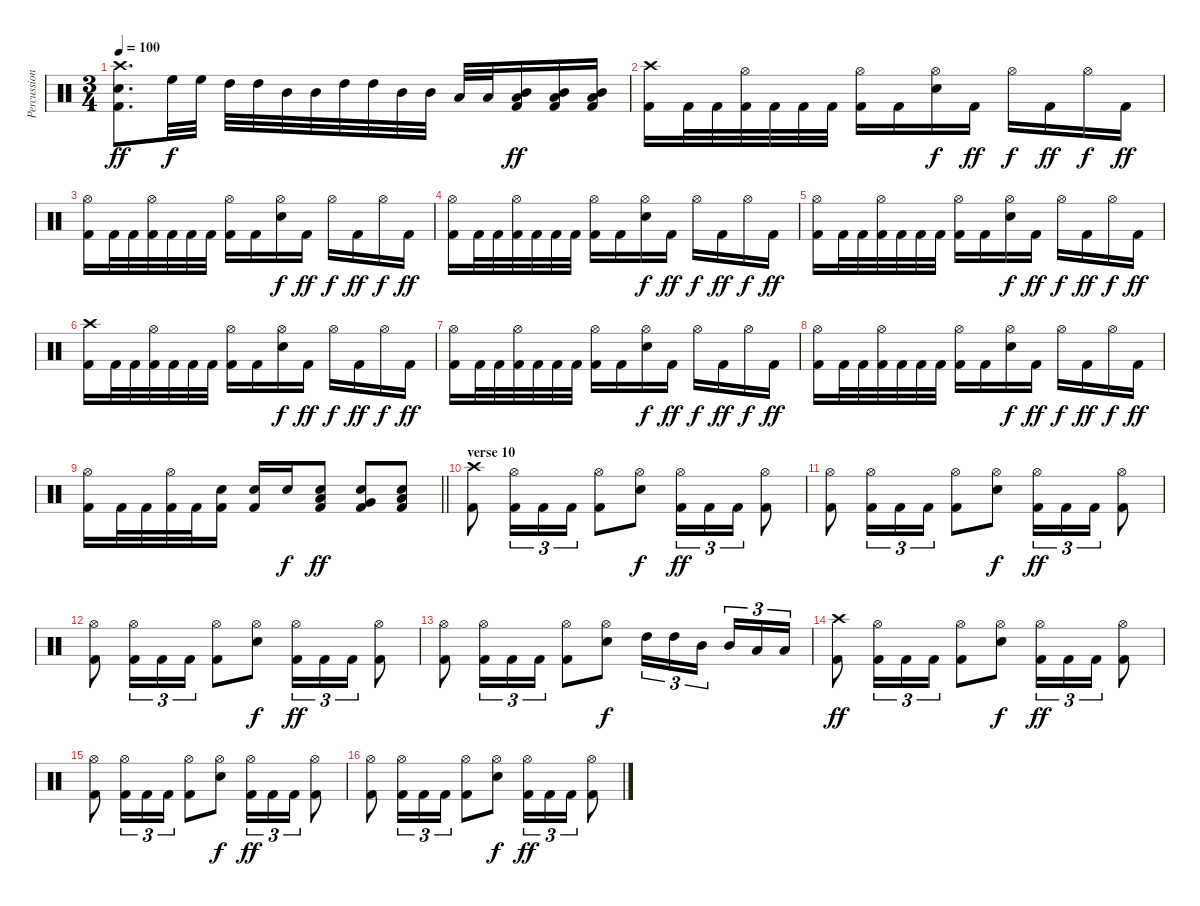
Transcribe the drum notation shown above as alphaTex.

\track ("Percussion" "Percussion") {instrument percussion}
\staff {score}
\articulation defaults
\ts (3 4)
\tempo 100
\clef neutral
\ks c
("Crash high (hit)" "Snare (hit) 2" "Kick (hit) 2").8{d dy ff} "High Floor Tom (hit)".32{dy f} "High Floor Tom (hit)".32 "High Tom (hit)".32 "High Tom (hit)".32 "Mid Tom (hit)".32 "Mid Tom (hit)".32 "High Tom (hit)".32 "High Tom (hit)".32 "Mid Tom (hit)".32 "Mid Tom (hit)".32 "Low Tom (hit)".32 "Low Tom (hit)".32 ("Low Tom (hit)" "Mid Tom (hit)" "Kick (hit) 2").16{dy ff} ("Low Tom (hit)" "Mid Tom (hit)" "Kick (hit) 2").16 ("Low Tom (hit)" "Mid Tom (hit)" "Kick (hit) 2").16 |
("Crash high (hit)" "Kick (hit) 2").16 "Kick (hit) 2".32 "Kick (hit) 2".32 ("Hi-Hat (open)" "Kick (hit) 2").32 "Kick (hit) 2".32 "Kick (hit) 2".32 "Kick (hit) 2".32 ("Hi-Hat (open)" "Kick (hit) 2").16 "Kick (hit) 2".16 ("Hi-Hat (open)" "Snare (hit) 2").16{dy f} "Kick (hit) 2".16{dy ff} "Hi-Hat (open)".16{dy f} "Kick (hit) 2".16{dy ff} "Hi-Hat (open)".16{dy f} "Kick (hit) 2".16{dy ff} |
("Hi-Hat (open)" "Kick (hit) 2").16 "Kick (hit) 2".32 "Kick (hit) 2".32 ("Hi-Hat (open)" "Kick (hit) 2").32 "Kick (hit) 2".32 "Kick (hit) 2".32 "Kick (hit) 2".32 ("Hi-Hat (open)" "Kick (hit) 2").16 "Kick (hit) 2".16 ("Hi-Hat (open)" "Snare (hit) 2").16{dy f} "Kick (hit) 2".16{dy ff} "Hi-Hat (open)".16{dy f} "Kick (hit) 2".16{dy ff} "Hi-Hat (open)".16{dy f} "Kick (hit) 2".16{dy ff} |
("Hi-Hat (open)" "Kick (hit) 2").16 "Kick (hit) 2".32 "Kick (hit) 2".32 ("Hi-Hat (open)" "Kick (hit) 2").32 "Kick (hit) 2".32 "Kick (hit) 2".32 "Kick (hit) 2".32 ("Hi-Hat (open)" "Kick (hit) 2").16 "Kick (hit) 2".16 ("Hi-Hat (open)" "Snare (hit) 2").16{dy f} "Kick (hit) 2".16{dy ff} "Hi-Hat (open)".16{dy f} "Kick (hit) 2".16{dy ff} "Hi-Hat (open)".16{dy f} "Kick (hit) 2".16{dy ff} |
("Hi-Hat (open)" "Kick (hit) 2").16 "Kick (hit) 2".32 "Kick (hit) 2".32 ("Hi-Hat (open)" "Kick (hit) 2").32 "Kick (hit) 2".32 "Kick (hit) 2".32 "Kick (hit) 2".32 ("Hi-Hat (open)" "Kick (hit) 2").16 "Kick (hit) 2".16 ("Hi-Hat (open)" "Snare (hit) 2").16{dy f} "Kick (hit) 2".16{dy ff} "Hi-Hat (open)".16{dy f} "Kick (hit) 2".16{dy ff} "Hi-Hat (open)".16{dy f} "Kick (hit) 2".16{dy ff} |
("Crash high (hit)" "Kick (hit) 2").16 "Kick (hit) 2".32 "Kick (hit) 2".32 ("Hi-Hat (open)" "Kick (hit) 2").32 "Kick (hit) 2".32 "Kick (hit) 2".32 "Kick (hit) 2".32 ("Hi-Hat (open)" "Kick (hit) 2").16 "Kick (hit) 2".16 ("Hi-Hat (open)" "Snare (hit) 2").16{dy f} "Kick (hit) 2".16{dy ff} "Hi-Hat (open)".16{dy f} "Kick (hit) 2".16{dy ff} "Hi-Hat (open)".16{dy f} "Kick (hit) 2".16{dy ff} |
("Hi-Hat (open)" "Kick (hit) 2").16 "Kick (hit) 2".32 "Kick (hit) 2".32 ("Hi-Hat (open)" "Kick (hit) 2").32 "Kick (hit) 2".32 "Kick (hit) 2".32 "Kick (hit) 2".32 ("Hi-Hat (open)" "Kick (hit) 2").16 "Kick (hit) 2".16 ("Hi-Hat (open)" "Snare (hit) 2").16{dy f} "Kick (hit) 2".16{dy ff} "Hi-Hat (open)".16{dy f} "Kick (hit) 2".16{dy ff} "Hi-Hat (open)".16{dy f} "Kick (hit) 2".16{dy ff} |
("Hi-Hat (open)" "Kick (hit) 2").16 "Kick (hit) 2".32 "Kick (hit) 2".32 ("Hi-Hat (open)" "Kick (hit) 2").32 "Kick (hit) 2".32 "Kick (hit) 2".32 "Kick (hit) 2".32 ("Hi-Hat (open)" "Kick (hit) 2").16 "Kick (hit) 2".16 ("Hi-Hat (open)" "Snare (hit) 2").16{dy f} "Kick (hit) 2".16{dy ff} "Hi-Hat (open)".16{dy f} "Kick (hit) 2".16{dy ff} "Hi-Hat (open)".16{dy f} "Kick (hit) 2".16{dy ff} |
\barLineRight lightlight
("Hi-Hat (open)" "Kick (hit) 2").16 "Kick (hit) 2".32 "Kick (hit) 2".32 ("Hi-Hat (open)" "Kick (hit) 2").32 "Kick (hit) 2".32 ("Snare (hit) 2" "Kick (hit) 2").16 ("Snare (hit) 2" "Kick (hit) 2").16 "Snare (hit) 2".16{dy f} ("Low Tom (hit)" "Snare (hit) 2" "Kick (hit) 2").8{dy ff} ("Very Low Tom (hit)" "Snare (hit) 2" "Kick (hit) 2").8 ("Low Floor Tom (hit)" "Snare (hit) 2" "Kick (hit) 2").8 |
\section ("" "verse 10")
("Crash high (hit)" "Kick (hit) 2").8 ("Hi-Hat (open)" "Kick (hit) 2").16{tu (3 2)} "Kick (hit) 2".16{tu (3 2)} "Kick (hit) 2".16{tu (3 2)} ("Hi-Hat (open)" "Kick (hit) 2").8 ("Hi-Hat (open)" "Snare (hit) 2").8{dy f} ("Hi-Hat (open)" "Kick (hit) 2").16{tu (3 2) dy ff} "Kick (hit) 2".16{tu (3 2)} "Kick (hit) 2".16{tu (3 2)} ("Hi-Hat (open)" "Kick (hit) 2").8 |
("Hi-Hat (open)" "Kick (hit) 2").8 ("Hi-Hat (open)" "Kick (hit) 2").16{tu (3 2)} "Kick (hit) 2".16{tu (3 2)} "Kick (hit) 2".16{tu (3 2)} ("Hi-Hat (open)" "Kick (hit) 2").8 ("Hi-Hat (open)" "Snare (hit) 2").8{dy f} ("Hi-Hat (open)" "Kick (hit) 2").16{tu (3 2) dy ff} "Kick (hit) 2".16{tu (3 2)} "Kick (hit) 2".16{tu (3 2)} ("Hi-Hat (open)" "Kick (hit) 2").8 |
("Hi-Hat (open)" "Kick (hit) 2").8 ("Hi-Hat (open)" "Kick (hit) 2").16{tu (3 2)} "Kick (hit) 2".16{tu (3 2)} "Kick (hit) 2".16{tu (3 2)} ("Hi-Hat (open)" "Kick (hit) 2").8 ("Hi-Hat (open)" "Snare (hit) 2").8{dy f} ("Hi-Hat (open)" "Kick (hit) 2").16{tu (3 2) dy ff} "Kick (hit) 2".16{tu (3 2)} "Kick (hit) 2".16{tu (3 2)} ("Hi-Hat (open)" "Kick (hit) 2").8 |
("Hi-Hat (open)" "Kick (hit) 2").8 ("Hi-Hat (open)" "Kick (hit) 2").16{tu (3 2)} "Kick (hit) 2".16{tu (3 2)} "Kick (hit) 2".16{tu (3 2)} ("Hi-Hat (open)" "Kick (hit) 2").8 ("Hi-Hat (open)" "Snare (hit) 2").8{dy f} "High Tom (hit)".16{tu (3 2)} "High Tom (hit)".16{tu (3 2)} "Mid Tom (hit)".16{tu (3 2) beam splitsecondary} "Mid Tom (hit)".16{tu (3 2)} "Low Tom (hit)".16{tu (3 2)} "Low Tom (hit)".16{tu (3 2)} |
("Crash high (hit)" "Kick (hit) 2").8{dy ff} ("Hi-Hat (open)" "Kick (hit) 2").16{tu (3 2)} "Kick (hit) 2".16{tu (3 2)} "Kick (hit) 2".16{tu (3 2)} ("Hi-Hat (open)" "Kick (hit) 2").8 ("Hi-Hat (open)" "Snare (hit) 2").8{dy f} ("Hi-Hat (open)" "Kick (hit) 2").16{tu (3 2) dy ff} "Kick (hit) 2".16{tu (3 2)} "Kick (hit) 2".16{tu (3 2)} ("Hi-Hat (open)" "Kick (hit) 2").8 |
("Hi-Hat (open)" "Kick (hit) 2").8 ("Hi-Hat (open)" "Kick (hit) 2").16{tu (3 2)} "Kick (hit) 2".16{tu (3 2)} "Kick (hit) 2".16{tu (3 2)} ("Hi-Hat (open)" "Kick (hit) 2").8 ("Hi-Hat (open)" "Snare (hit) 2").8{dy f} ("Hi-Hat (open)" "Kick (hit) 2").16{tu (3 2) dy ff} "Kick (hit) 2".16{tu (3 2)} "Kick (hit) 2".16{tu (3 2)} ("Hi-Hat (open)" "Kick (hit) 2").8 |
("Hi-Hat (open)" "Kick (hit) 2").8 ("Hi-Hat (open)" "Kick (hit) 2").16{tu (3 2)} "Kick (hit) 2".16{tu (3 2)} "Kick (hit) 2".16{tu (3 2)} ("Hi-Hat (open)" "Kick (hit) 2").8 ("Hi-Hat (open)" "Snare (hit) 2").8{dy f} ("Hi-Hat (open)" "Kick (hit) 2").16{tu (3 2) dy ff} "Kick (hit) 2".16{tu (3 2)} "Kick (hit) 2".16{tu (3 2)} ("Hi-Hat (open)" "Kick (hit) 2").8
